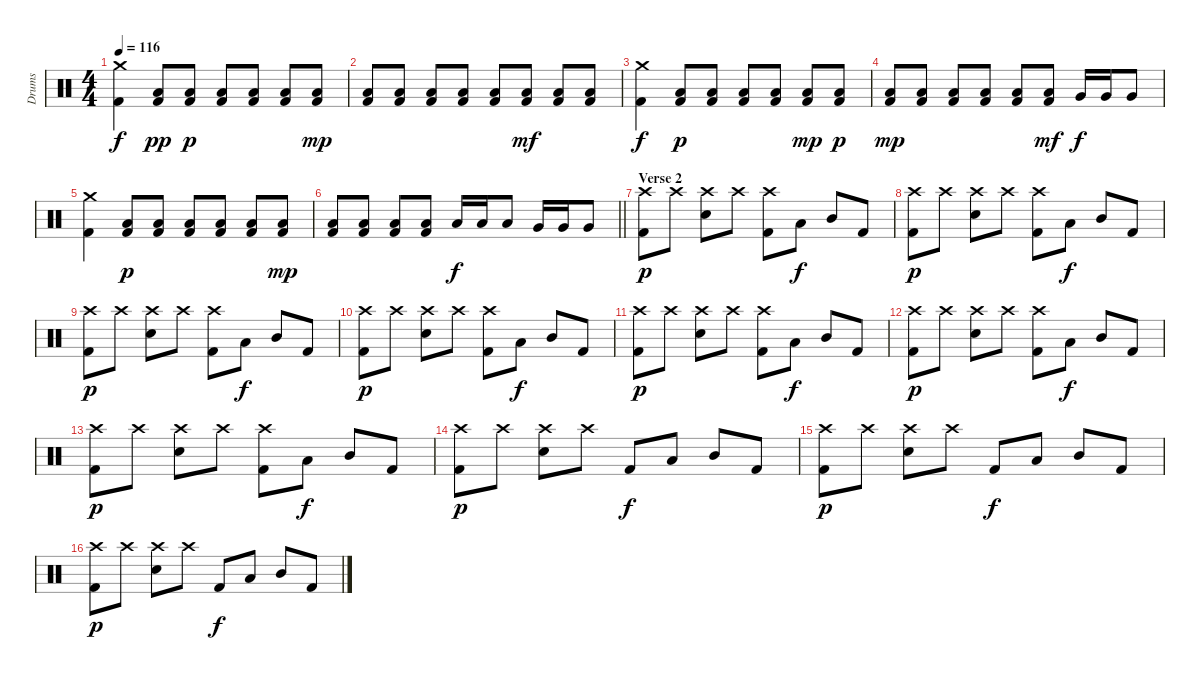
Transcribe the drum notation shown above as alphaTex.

\track ("Drums" "Drums") {instrument percussion}
\staff {score}
\articulation defaults
\ts (4 4)
\tempo 116
\clef neutral
\ks c
("Kick (hit) 2" "Crash medium (hit)").4{dy f} ("Low Floor Tom (hit)" "Kick (hit) 2").8{dy pp} ("Low Floor Tom (hit)" "Kick (hit) 2").8{dy p} ("Low Floor Tom (hit)" "Kick (hit) 2").8 ("Low Floor Tom (hit)" "Kick (hit) 2").8 ("Low Floor Tom (hit)" "Kick (hit) 2").8 ("Kick (hit) 2" "Low Floor Tom (hit)").8{dy mp} |
("Kick (hit) 2" "Low Floor Tom (hit)").8 ("Low Floor Tom (hit)" "Kick (hit) 2").8 ("Low Floor Tom (hit)" "Kick (hit) 2").8 ("Kick (hit) 2" "Low Floor Tom (hit)").8 ("Kick (hit) 2" "Low Floor Tom (hit)").8 ("Low Floor Tom (hit)" "Kick (hit) 2").8{dy mf} ("Low Floor Tom (hit)" "Kick (hit) 2").8 ("Low Floor Tom (hit)" "Kick (hit) 2").8 |
("Crash medium (hit)" "Kick (hit) 2").4{dy f} ("Kick (hit) 2" "Low Floor Tom (hit)").8{dy p} ("Low Floor Tom (hit)" "Kick (hit) 2").8 ("Low Floor Tom (hit)" "Kick (hit) 2").8 ("Kick (hit) 2" "Low Floor Tom (hit)").8 ("Kick (hit) 2" "Low Floor Tom (hit)").8{dy mp} ("Kick (hit) 2" "Low Floor Tom (hit)").8{dy p} |
("Low Floor Tom (hit)" "Kick (hit) 2").8{dy mp} ("Kick (hit) 2" "Low Floor Tom (hit)").8 ("Low Floor Tom (hit)" "Kick (hit) 2").8 ("Low Floor Tom (hit)" "Kick (hit) 2").8 ("Kick (hit) 2" "Low Floor Tom (hit)").8 ("Kick (hit) 2" "Low Floor Tom (hit)").8{dy mf} "Very Low Tom (hit)".16{dy f} "Very Low Tom (hit)".16 "Very Low Tom (hit)".8 |
("Crash medium (hit)" "Kick (hit) 2").4 ("Kick (hit) 2" "Low Floor Tom (hit)").8{dy p} ("Kick (hit) 2" "Low Floor Tom (hit)").8 ("Low Floor Tom (hit)" "Kick (hit) 2").8 ("Kick (hit) 2" "Low Floor Tom (hit)").8 ("Kick (hit) 2" "Low Floor Tom (hit)").8 ("Low Floor Tom (hit)" "Kick (hit) 2").8{dy mp} |
\barLineRight lightlight
("Low Floor Tom (hit)" "Kick (hit) 2").8 ("Kick (hit) 2" "Low Floor Tom (hit)").8 ("Kick (hit) 2" "Low Floor Tom (hit)").8 ("Kick (hit) 2" "Low Floor Tom (hit)").8 "Low Tom (hit)".16{dy f} "Low Tom (hit)".16 "Low Tom (hit)".8 "Very Low Tom (hit)".16 "Very Low Tom (hit)".16 "Very Low Tom (hit)".8 |
\section ("" "Verse 2")
("Kick (hit) 2" "Crash high (hit)").8{dy p} "Crash high (hit)".8 ("Snare (hit) 2" "Crash high (hit)").8 "Crash high (hit)".8 ("Crash high (hit)" "Kick (hit) 2").8 "Low Tom (hit)".8{dy f} "Mid Tom (hit)".8 "Kick (hit) 2".8 |
("Crash high (hit)" "Kick (hit) 2").8{dy p} "Crash high (hit)".8 ("Snare (hit) 2" "Crash high (hit)").8 "Crash high (hit)".8 ("Kick (hit) 2" "Crash high (hit)").8 "Low Tom (hit)".8{dy f} "Mid Tom (hit)".8 "Kick (hit) 2".8 |
("Kick (hit) 2" "Crash high (hit)").8{dy p} "Crash high (hit)".8 ("Crash high (hit)" "Snare (hit) 2").8 "Crash high (hit)".8 ("Kick (hit) 2" "Crash high (hit)").8 "Low Tom (hit)".8{dy f} "Mid Tom (hit)".8 "Kick (hit) 2".8 |
("Crash high (hit)" "Kick (hit) 2").8{dy p} "Crash high (hit)".8 ("Crash high (hit)" "Snare (hit) 2").8 "Crash high (hit)".8 ("Crash high (hit)" "Kick (hit) 2").8 "Low Tom (hit)".8{dy f} "Mid Tom (hit)".8 "Kick (hit) 2".8 |
("Kick (hit) 2" "Crash high (hit)").8{dy p} "Crash high (hit)".8 ("Crash high (hit)" "Snare (hit) 2").8 "Crash high (hit)".8 ("Kick (hit) 2" "Crash high (hit)").8 "Low Tom (hit)".8{dy f} "Mid Tom (hit)".8 "Kick (hit) 2".8 |
("Kick (hit) 2" "Crash high (hit)").8{dy p} "Crash high (hit)".8 ("Snare (hit) 2" "Crash high (hit)").8 "Crash high (hit)".8 ("Crash high (hit)" "Kick (hit) 2").8 "Low Tom (hit)".8{dy f} "Mid Tom (hit)".8 "Kick (hit) 2".8 |
("Crash high (hit)" "Kick (hit) 2").8{dy p} "Crash high (hit)".8 ("Snare (hit) 2" "Crash high (hit)").8 "Crash high (hit)".8 ("Kick (hit) 2" "Crash high (hit)").8 "Low Tom (hit)".8{dy f} "Mid Tom (hit)".8 "Kick (hit) 2".8 |
("Crash high (hit)" "Kick (hit) 2").8{dy p} "Crash high (hit)".8 ("Crash high (hit)" "Snare (hit) 2").8 "Crash high (hit)".8 "Kick (hit) 2".8{dy f} "Low Tom (hit)".8 "Mid Tom (hit)".8 "Kick (hit) 2".8 |
("Crash high (hit)" "Kick (hit) 2").8{dy p} "Crash high (hit)".8 ("Crash high (hit)" "Snare (hit) 2").8 "Crash high (hit)".8 "Kick (hit) 2".8{dy f} "Low Tom (hit)".8 "Mid Tom (hit)".8 "Kick (hit) 2".8 |
("Crash high (hit)" "Kick (hit) 2").8{dy p} "Crash high (hit)".8 ("Snare (hit) 2" "Crash high (hit)").8 "Crash high (hit)".8 "Kick (hit) 2".8{dy f} "Low Tom (hit)".8 "Mid Tom (hit)".8 "Kick (hit) 2".8
